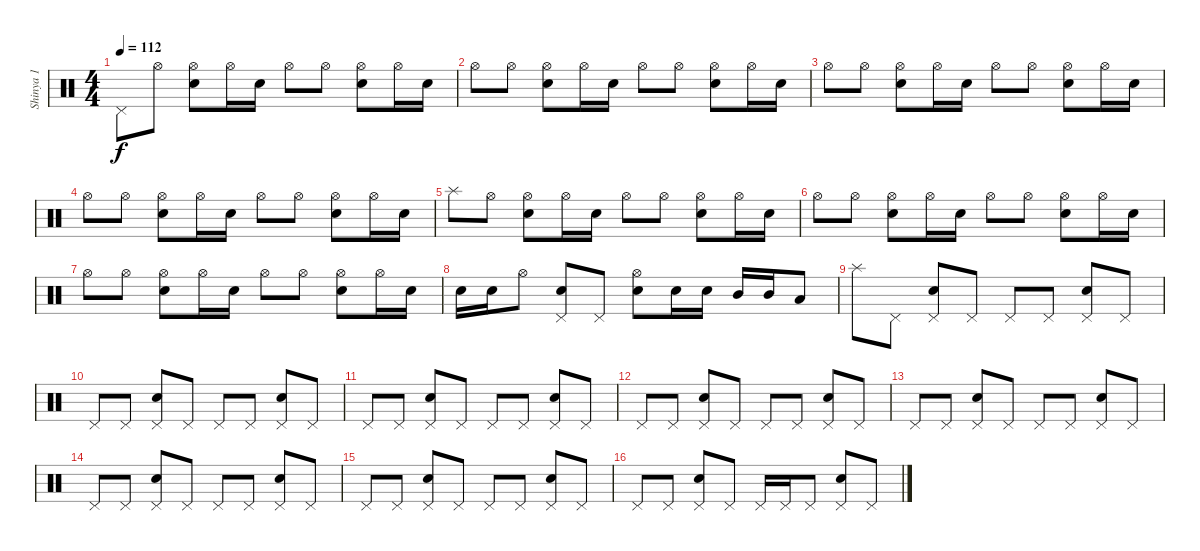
\track ("Shinya 1" "Shinya 1") {instrument percussion}
\staff {score}
\articulation defaults
\ts (4 4)
\tempo 112
\clef neutral
\ks c "Pedal Hi-Hat (hit)".8{dy f} "Hi-Hat (open)".8
("Hi-Hat (open)" "Snare (hit) 2").8 "Hi-Hat (open)".16 "Snare (hit) 2".16 "Hi-Hat (open)".8 "Hi-Hat (open)".8 ("Hi-Hat (open)" "Snare (hit) 2").8 "Hi-Hat (open)".16 "Snare (hit) 2".16 |
"Hi-Hat (open)".8 "Hi-Hat (open)".8 ("Hi-Hat (open)" "Snare (hit) 2").8 "Hi-Hat (open)".16 "Snare (hit) 2".16 "Hi-Hat (open)".8 "Hi-Hat (open)".8 ("Hi-Hat (open)" "Snare (hit) 2").8 "Hi-Hat (open)".16 "Snare (hit) 2".16 |
"Hi-Hat (open)".8 "Hi-Hat (open)".8 ("Hi-Hat (open)" "Snare (hit) 2").8 "Hi-Hat (open)".16 "Snare (hit) 2".16 "Hi-Hat (open)".8 "Hi-Hat (open)".8 ("Hi-Hat (open)" "Snare (hit) 2").8 "Hi-Hat (open)".16 "Snare (hit) 2".16 |
"Hi-Hat (open)".8 "Hi-Hat (open)".8 ("Hi-Hat (open)" "Snare (hit) 2").8 "Hi-Hat (open)".16 "Snare (hit) 2".16 "Hi-Hat (open)".8 "Hi-Hat (open)".8 ("Hi-Hat (open)" "Snare (hit) 2").8 "Hi-Hat (open)".16 "Snare (hit) 2".16 |
"Splash (hit)".8 "Hi-Hat (open)".8 ("Hi-Hat (open)" "Snare (hit) 2").8 "Hi-Hat (open)".16 "Snare (hit) 2".16 "Hi-Hat (open)".8 "Hi-Hat (open)".8 ("Hi-Hat (open)" "Snare (hit) 2").8 "Hi-Hat (open)".16 "Snare (hit) 2".16 |
"Hi-Hat (open)".8 "Hi-Hat (open)".8 ("Hi-Hat (open)" "Snare (hit) 2").8 "Hi-Hat (open)".16 "Snare (hit) 2".16 "Hi-Hat (open)".8 "Hi-Hat (open)".8 ("Hi-Hat (open)" "Snare (hit) 2").8 "Hi-Hat (open)".16 "Snare (hit) 2".16 |
"Hi-Hat (open)".8 "Hi-Hat (open)".8 ("Hi-Hat (open)" "Snare (hit) 2").8 "Hi-Hat (open)".16 "Snare (hit) 2".16 "Hi-Hat (open)".8 "Hi-Hat (open)".8 ("Hi-Hat (open)" "Snare (hit) 2").8 "Hi-Hat (open)".16 "Snare (hit) 2".16 |
"Snare (hit) 2".16 "Snare (hit) 2".16 "Hi-Hat (open)".8 ("Pedal Hi-Hat (hit)" "Snare (hit) 2").8 "Pedal Hi-Hat (hit)".8 ("Hi-Hat (open)" "Snare (hit) 2").8 "Snare (hit) 2".16 "Snare (hit) 2".16 "Mid Tom (hit)".16 "Mid Tom (hit)".16 "Low Floor Tom (hit)".8 |
"Splash (hit)".8 "Pedal Hi-Hat (hit)".8 ("Pedal Hi-Hat (hit)" "Snare (hit) 2").8 "Pedal Hi-Hat (hit)".8 "Pedal Hi-Hat (hit)".8 "Pedal Hi-Hat (hit)".8 ("Pedal Hi-Hat (hit)" "Snare (hit) 2").8 "Pedal Hi-Hat (hit)".8 |
"Pedal Hi-Hat (hit)".8 "Pedal Hi-Hat (hit)".8 ("Pedal Hi-Hat (hit)" "Snare (hit) 2").8 "Pedal Hi-Hat (hit)".8 "Pedal Hi-Hat (hit)".8 "Pedal Hi-Hat (hit)".8 ("Pedal Hi-Hat (hit)" "Snare (hit) 2").8 "Pedal Hi-Hat (hit)".8 |
"Pedal Hi-Hat (hit)".8 "Pedal Hi-Hat (hit)".8 ("Pedal Hi-Hat (hit)" "Snare (hit) 2").8 "Pedal Hi-Hat (hit)".8 "Pedal Hi-Hat (hit)".8 "Pedal Hi-Hat (hit)".8 ("Pedal Hi-Hat (hit)" "Snare (hit) 2").8 "Pedal Hi-Hat (hit)".8 |
"Pedal Hi-Hat (hit)".8 "Pedal Hi-Hat (hit)".8 ("Pedal Hi-Hat (hit)" "Snare (hit) 2").8 "Pedal Hi-Hat (hit)".8 "Pedal Hi-Hat (hit)".8 "Pedal Hi-Hat (hit)".8 ("Pedal Hi-Hat (hit)" "Snare (hit) 2").8 "Pedal Hi-Hat (hit)".8 |
"Pedal Hi-Hat (hit)".8 "Pedal Hi-Hat (hit)".8 ("Pedal Hi-Hat (hit)" "Snare (hit) 2").8 "Pedal Hi-Hat (hit)".8 "Pedal Hi-Hat (hit)".8 "Pedal Hi-Hat (hit)".8 ("Pedal Hi-Hat (hit)" "Snare (hit) 2").8 "Pedal Hi-Hat (hit)".8 |
"Pedal Hi-Hat (hit)".8 "Pedal Hi-Hat (hit)".8 ("Pedal Hi-Hat (hit)" "Snare (hit) 2").8 "Pedal Hi-Hat (hit)".8 "Pedal Hi-Hat (hit)".8 "Pedal Hi-Hat (hit)".8 ("Pedal Hi-Hat (hit)" "Snare (hit) 2").8 "Pedal Hi-Hat (hit)".8 |
"Pedal Hi-Hat (hit)".8 "Pedal Hi-Hat (hit)".8 ("Pedal Hi-Hat (hit)" "Snare (hit) 2").8 "Pedal Hi-Hat (hit)".8 "Pedal Hi-Hat (hit)".8 "Pedal Hi-Hat (hit)".8 ("Pedal Hi-Hat (hit)" "Snare (hit) 2").8 "Pedal Hi-Hat (hit)".8 |
"Pedal Hi-Hat (hit)".8 "Pedal Hi-Hat (hit)".8 ("Pedal Hi-Hat (hit)" "Snare (hit) 2").8 "Pedal Hi-Hat (hit)".8 "Pedal Hi-Hat (hit)".16 "Pedal Hi-Hat (hit)".16 "Pedal Hi-Hat (hit)".8 ("Pedal Hi-Hat (hit)" "Snare (hit) 2").8 "Pedal Hi-Hat (hit)".8
